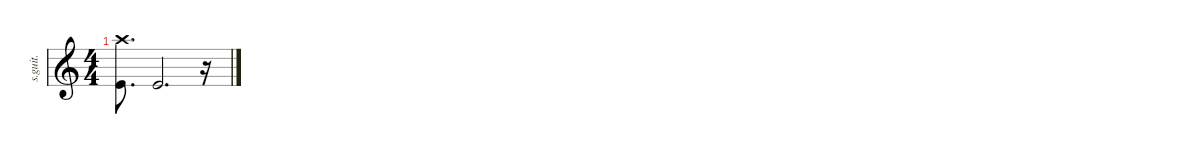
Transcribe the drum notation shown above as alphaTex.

\defaultSystemsLayout 4
\hideDynamics
\bracketExtendMode nobrackets
\track ("Percussion" "s.guit.") {instrument percussion}
\staff {score}
\articulation defaults
\ts (4 4)
\tempo (128 hide)
\clef g2
\ks c
("Crash high (hit)" "Kick (hit)").8{d dy f} "Kick (hit)".2{d} r.16
